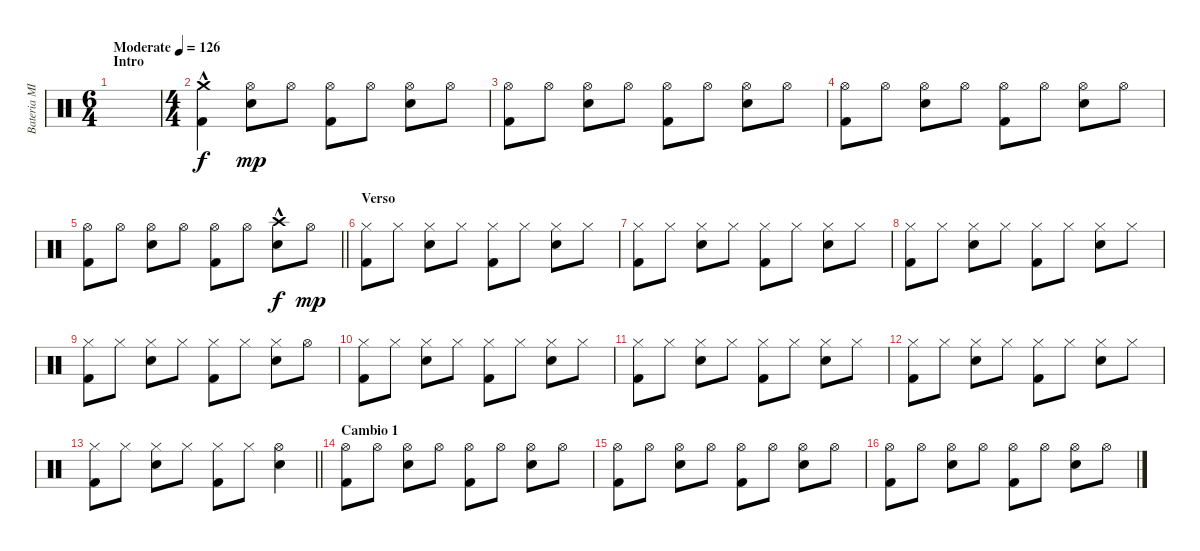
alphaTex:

\track ("Bateria MIDI" "Bateria MI") {instrument percussion}
\staff {score}
\articulation defaults
\ts (6 4)
\section ("" "Intro")
\tempo (126 "Moderate")
\clef neutral
\ks c
|
\ts (4 4)
("Crash medium (hit)"{hac} "Kick (hit) 2").4 ("Hi-Hat (open)" "Snare (hit) 2").8{dy mp} "Hi-Hat (open)".8 ("Hi-Hat (open)" "Kick (hit) 2").8 "Hi-Hat (open)".8 ("Hi-Hat (open)" "Snare (hit) 2").8 "Hi-Hat (open)".8 |
("Hi-Hat (open)" "Kick (hit) 2").8 "Hi-Hat (open)".8 ("Hi-Hat (open)" "Snare (hit) 2").8 "Hi-Hat (open)".8 ("Hi-Hat (open)" "Kick (hit) 2").8 "Hi-Hat (open)".8 ("Hi-Hat (open)" "Snare (hit) 2").8 "Hi-Hat (open)".8 |
("Hi-Hat (open)" "Kick (hit) 2").8 "Hi-Hat (open)".8 ("Hi-Hat (open)" "Snare (hit) 2").8 "Hi-Hat (open)".8 ("Hi-Hat (open)" "Kick (hit) 2").8 "Hi-Hat (open)".8 ("Hi-Hat (open)" "Snare (hit) 2").8 "Hi-Hat (open)".8 |
\barLineRight lightlight
("Hi-Hat (open)" "Kick (hit) 2").8 "Hi-Hat (open)".8 ("Hi-Hat (open)" "Snare (hit) 2").8 "Hi-Hat (open)".8 ("Hi-Hat (open)" "Kick (hit) 2").8 "Hi-Hat (open)".8 ("Crash high (hit)"{hac} "Snare (hit) 2").8{dy f} "Hi-Hat (open)".8{dy mp} |
\section ("" "Verso")
("Hi-Hat (closed)" "Kick (hit) 2").8 "Hi-Hat (closed)".8 ("Hi-Hat (closed)" "Snare (hit) 2").8 "Hi-Hat (closed)".8 ("Hi-Hat (closed)" "Kick (hit) 2").8 "Hi-Hat (closed)".8 ("Hi-Hat (closed)" "Snare (hit) 2").8 "Hi-Hat (closed)".8 |
("Hi-Hat (closed)" "Kick (hit) 2").8 "Hi-Hat (closed)".8 ("Hi-Hat (closed)" "Snare (hit) 2").8 "Hi-Hat (closed)".8 ("Hi-Hat (closed)" "Kick (hit) 2").8 "Hi-Hat (closed)".8 ("Hi-Hat (closed)" "Snare (hit) 2").8 "Hi-Hat (closed)".8 |
("Hi-Hat (closed)" "Kick (hit) 2").8 "Hi-Hat (closed)".8 ("Hi-Hat (closed)" "Snare (hit) 2").8 "Hi-Hat (closed)".8 ("Hi-Hat (closed)" "Kick (hit) 2").8 "Hi-Hat (closed)".8 ("Hi-Hat (closed)" "Snare (hit) 2").8 "Hi-Hat (closed)".8 |
("Hi-Hat (closed)" "Kick (hit) 2").8 "Hi-Hat (closed)".8 ("Hi-Hat (closed)" "Snare (hit) 2").8 "Hi-Hat (closed)".8 ("Hi-Hat (closed)" "Kick (hit) 2").8 "Hi-Hat (closed)".8 ("Hi-Hat (closed)" "Snare (hit) 2").8 "Hi-Hat (open)".8 |
("Hi-Hat (closed)" "Kick (hit) 2").8 "Hi-Hat (closed)".8 ("Hi-Hat (closed)" "Snare (hit) 2").8 "Hi-Hat (closed)".8 ("Hi-Hat (closed)" "Kick (hit) 2").8 "Hi-Hat (closed)".8 ("Hi-Hat (closed)" "Snare (hit) 2").8 "Hi-Hat (closed)".8 |
("Hi-Hat (closed)" "Kick (hit) 2").8 "Hi-Hat (closed)".8 ("Hi-Hat (closed)" "Snare (hit) 2").8 "Hi-Hat (closed)".8 ("Hi-Hat (closed)" "Kick (hit) 2").8 "Hi-Hat (closed)".8 ("Hi-Hat (closed)" "Snare (hit) 2").8 "Hi-Hat (closed)".8 |
("Hi-Hat (closed)" "Kick (hit) 2").8 "Hi-Hat (closed)".8 ("Hi-Hat (closed)" "Snare (hit) 2").8 "Hi-Hat (closed)".8 ("Hi-Hat (closed)" "Kick (hit) 2").8 "Hi-Hat (closed)".8 ("Hi-Hat (closed)" "Snare (hit) 2").8 "Hi-Hat (closed)".8 |
\barLineRight lightlight
("Hi-Hat (closed)" "Kick (hit) 2").8 "Hi-Hat (closed)".8 ("Hi-Hat (closed)" "Snare (hit) 2").8 "Hi-Hat (closed)".8 ("Hi-Hat (closed)" "Kick (hit) 2").8 "Hi-Hat (closed)".8 ("Hi-Hat (open)" "Snare (hit) 2").4 |
\section ("" "Cambio 1")
("Hi-Hat (open)" "Kick (hit) 2").8 "Hi-Hat (open)".8 ("Hi-Hat (open)" "Snare (hit) 2").8 "Hi-Hat (open)".8 ("Hi-Hat (open)" "Kick (hit) 2").8 "Hi-Hat (open)".8 ("Hi-Hat (open)" "Snare (hit) 2").8 "Hi-Hat (open)".8 |
("Hi-Hat (open)" "Kick (hit) 2").8 "Hi-Hat (open)".8 ("Hi-Hat (open)" "Snare (hit) 2").8 "Hi-Hat (open)".8 ("Hi-Hat (open)" "Kick (hit) 2").8 "Hi-Hat (open)".8 ("Hi-Hat (open)" "Snare (hit) 2").8 "Hi-Hat (open)".8 |
("Hi-Hat (open)" "Kick (hit) 2").8 "Hi-Hat (open)".8 ("Hi-Hat (open)" "Snare (hit) 2").8 "Hi-Hat (open)".8 ("Hi-Hat (open)" "Kick (hit) 2").8 "Hi-Hat (open)".8 ("Hi-Hat (open)" "Snare (hit) 2").8 "Hi-Hat (open)".8
